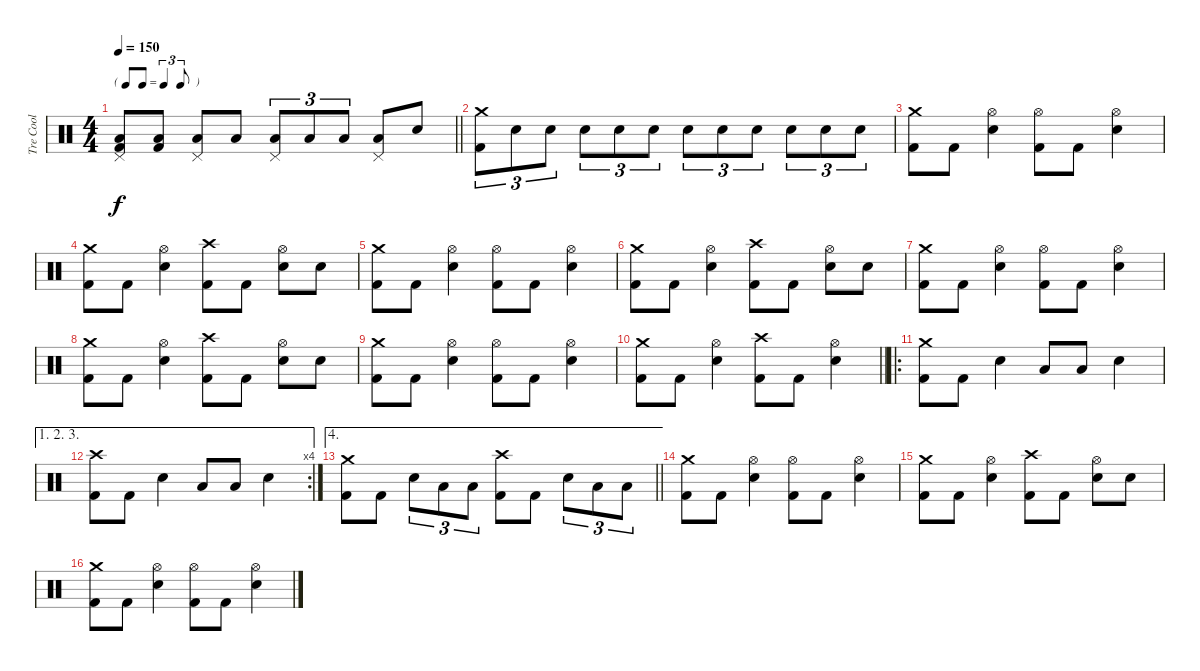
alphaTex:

\track ("Tre Cool" "Tre Cool") {instrument percussion}
\staff {score}
\articulation defaults
\ts (4 4)
\tf triplet8th
\tempo 150
\clef neutral
\barLineRight lightlight
\ks c
("Pedal Hi-Hat (hit)" "Low Floor Tom (hit)" "Kick (hit) 2").8{dy f} ("Low Floor Tom (hit)" "Kick (hit) 2").8 ("Pedal Hi-Hat (hit)" "Low Tom (hit)").8 "Low Floor Tom (hit)".8 ("Pedal Hi-Hat (hit)" "Low Floor Tom (hit)").8{tu (3 2)} "Low Floor Tom (hit)".8{tu (3 2)} "Low Floor Tom (hit)".8{tu (3 2)} ("Pedal Hi-Hat (hit)" "Low Tom (hit)").8 "Electric Snare (hit)".8 |
("Crash medium (hit)" "Kick (hit) 2").8{tu (3 2)} "Electric Snare (hit)".8{tu (3 2)} "Electric Snare (hit)".8{tu (3 2)} "Electric Snare (hit)".8{tu (3 2)} "Electric Snare (hit)".8{tu (3 2)} "Electric Snare (hit)".8{tu (3 2)} "Electric Snare (hit)".8{tu (3 2)} "Electric Snare (hit)".8{tu (3 2)} "Electric Snare (hit)".8{tu (3 2)} "Electric Snare (hit)".8{tu (3 2)} "Electric Snare (hit)".8{tu (3 2)} "Electric Snare (hit)".8{tu (3 2)} |
("Crash medium (hit)" "Kick (hit) 2").8 "Kick (hit) 2".8 ("Hi-Hat (open)" "Electric Snare (hit)").4 ("Hi-Hat (open)" "Kick (hit) 2").8 "Kick (hit) 2".8 ("Hi-Hat (open)" "Electric Snare (hit)").4 |
("Crash medium (hit)" "Kick (hit) 2").8 "Kick (hit) 2".8 ("Hi-Hat (open)" "Electric Snare (hit)").4 ("Crash high (hit)" "Kick (hit) 2").8 "Kick (hit) 2".8 ("Hi-Hat (open)" "Electric Snare (hit)").8 "Electric Snare (hit)".8 |
("Crash medium (hit)" "Kick (hit) 2").8 "Kick (hit) 2".8 ("Hi-Hat (open)" "Electric Snare (hit)").4 ("Hi-Hat (open)" "Kick (hit) 2").8 "Kick (hit) 2".8 ("Hi-Hat (open)" "Electric Snare (hit)").4 |
("Crash medium (hit)" "Kick (hit) 2").8 "Kick (hit) 2".8 ("Hi-Hat (open)" "Electric Snare (hit)").4 ("Crash high (hit)" "Kick (hit) 2").8 "Kick (hit) 2".8 ("Hi-Hat (open)" "Electric Snare (hit)").8 "Electric Snare (hit)".8 |
("Crash medium (hit)" "Kick (hit) 2").8 "Kick (hit) 2".8 ("Hi-Hat (open)" "Electric Snare (hit)").4 ("Hi-Hat (open)" "Kick (hit) 2").8 "Kick (hit) 2".8 ("Hi-Hat (open)" "Electric Snare (hit)").4 |
("Crash medium (hit)" "Kick (hit) 2").8 "Kick (hit) 2".8 ("Hi-Hat (open)" "Electric Snare (hit)").4 ("Crash high (hit)" "Kick (hit) 2").8 "Kick (hit) 2".8 ("Hi-Hat (open)" "Electric Snare (hit)").8 "Electric Snare (hit)".8 |
("Crash medium (hit)" "Kick (hit) 2").8 "Kick (hit) 2".8 ("Hi-Hat (open)" "Electric Snare (hit)").4 ("Hi-Hat (open)" "Kick (hit) 2").8 "Kick (hit) 2".8 ("Hi-Hat (open)" "Electric Snare (hit)").4 |
\barLineRight lightlight
("Crash medium (hit)" "Kick (hit) 2").8 "Kick (hit) 2".8 ("Hi-Hat (open)" "Electric Snare (hit)").4 ("Crash high (hit)" "Kick (hit) 2").8 "Kick (hit) 2".8 ("Hi-Hat (open)" "Electric Snare (hit)").4 |
\ro
("Crash medium (hit)" "Kick (hit) 2").8 "Kick (hit) 2".8 "Electric Snare (hit)".4 "Low Tom (hit)".8 "Low Tom (hit)".8 "Electric Snare (hit)".4 |
\ae (1 2 3)
\rc 4
("Crash high (hit)" "Kick (hit) 2").8 "Kick (hit) 2".8 "Electric Snare (hit)".4 "Low Floor Tom (hit)".8 "Low Floor Tom (hit)".8 "Electric Snare (hit)".4 |
\ae 4
\barLineRight lightlight
("Crash medium (hit)" "Kick (hit) 2").8 "Kick (hit) 2".8 "Electric Snare (hit)".8{tu (3 2)} "Low Tom (hit)".8{tu (3 2)} "Low Floor Tom (hit)".8{tu (3 2)} ("Crash high (hit)" "Kick (hit) 2").8 "Kick (hit) 2".8 "Electric Snare (hit)".8{tu (3 2)} "Low Tom (hit)".8{tu (3 2)} "Low Floor Tom (hit)".8{tu (3 2)} |
("Crash medium (hit)" "Kick (hit) 2").8 "Kick (hit) 2".8 ("Hi-Hat (open)" "Electric Snare (hit)").4 ("Hi-Hat (open)" "Kick (hit) 2").8 "Kick (hit) 2".8 ("Hi-Hat (open)" "Electric Snare (hit)").4 |
("Crash medium (hit)" "Kick (hit) 2").8 "Kick (hit) 2".8 ("Hi-Hat (open)" "Electric Snare (hit)").4 ("Crash high (hit)" "Kick (hit) 2").8 "Kick (hit) 2".8 ("Hi-Hat (open)" "Electric Snare (hit)").8 "Electric Snare (hit)".8 |
("Crash medium (hit)" "Kick (hit) 2").8 "Kick (hit) 2".8 ("Hi-Hat (open)" "Electric Snare (hit)").4 ("Hi-Hat (open)" "Kick (hit) 2").8 "Kick (hit) 2".8 ("Hi-Hat (open)" "Electric Snare (hit)").4
